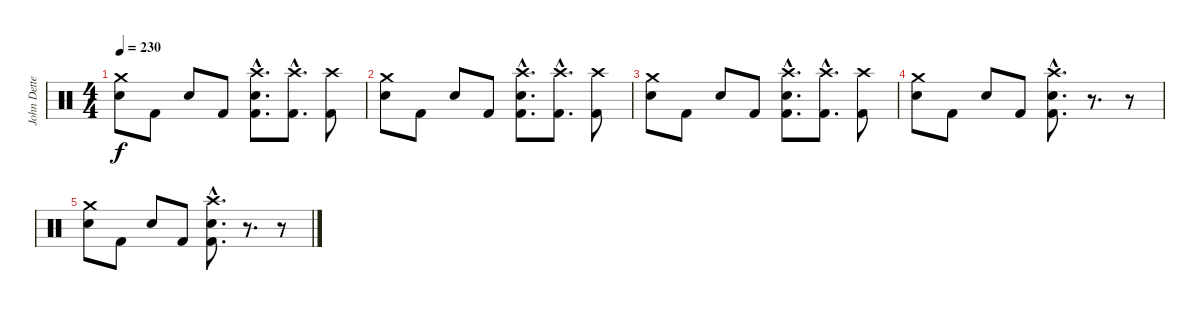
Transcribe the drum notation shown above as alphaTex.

\track ("John Dette" "John Dette") {instrument percussion}
\staff {score}
\articulation defaults
\ts (4 4)
\tempo 230
\clef neutral
\ks c
("Crash medium (hit)" "Snare (hit) 2").8{dy f} "Kick (hit) 2".8 "Snare (hit) 2".8 "Kick (hit) 2".8 ("Crash high (hit)"{hac} "Snare (hit) 2"{hac} "Kick (hit) 2"{hac}).8{d} ("Crash high (hit)"{hac} "Kick (hit) 2"{hac}).8{d} ("Crash high (hit)" "Kick (hit) 2").8 |
("Crash medium (hit)" "Snare (hit) 2").8 "Kick (hit) 2".8 "Snare (hit) 2".8 "Kick (hit) 2".8 ("Crash high (hit)"{hac} "Snare (hit) 2"{hac} "Kick (hit) 2"{hac}).8{d} ("Crash high (hit)"{hac} "Kick (hit) 2"{hac}).8{d} ("Crash high (hit)" "Kick (hit) 2").8 |
("Crash medium (hit)" "Snare (hit) 2").8 "Kick (hit) 2".8 "Snare (hit) 2".8 "Kick (hit) 2".8 ("Crash high (hit)"{hac} "Snare (hit) 2"{hac} "Kick (hit) 2"{hac}).8{d} ("Crash high (hit)"{hac} "Kick (hit) 2"{hac}).8{d} ("Crash high (hit)" "Kick (hit) 2").8 |
("Crash medium (hit)" "Snare (hit) 2").8{volume 16} "Kick (hit) 2".8 "Snare (hit) 2".8 "Kick (hit) 2".8 ("Crash high (hit)"{hac} "Snare (hit) 2"{hac} "Kick (hit) 2"{hac}).8{d} r.8{d volume 0} r.8 |
("Crash medium (hit)" "Snare (hit) 2").8{volume 16} "Kick (hit) 2".8 "Snare (hit) 2".8 "Kick (hit) 2".8 ("Crash high (hit)"{hac} "Snare (hit) 2"{hac} "Kick (hit) 2"{hac}).8{d} r.8{d volume 0} r.8
